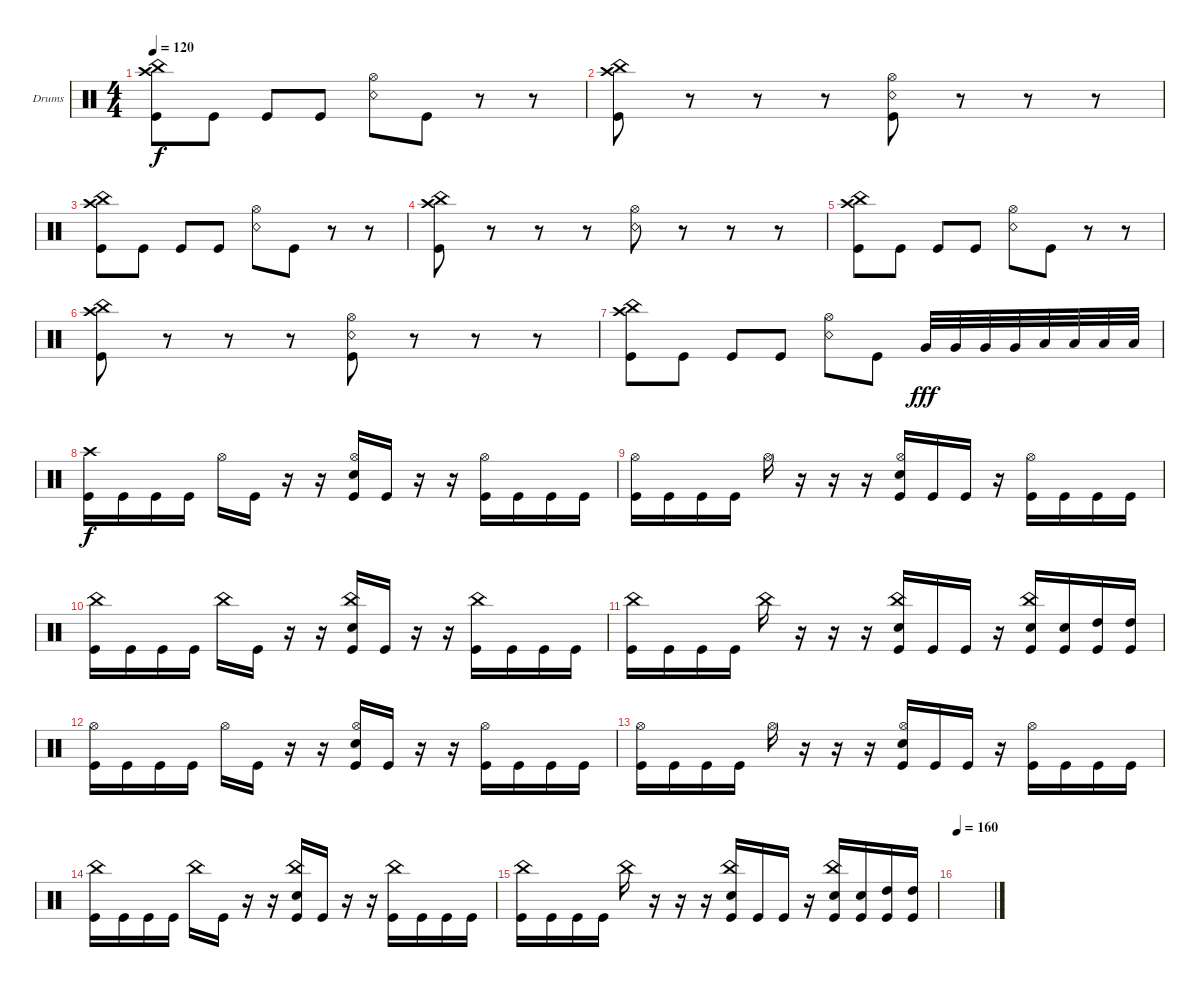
\defaultSystemsLayout 4
\bracketExtendMode groupsimilarinstruments
\firstSystemTrackNameOrientation horizontal
\otherSystemsTrackNameOrientation horizontal
\track ("Drumkit" "Drums") {instrument percussion}
\staff {score}
\articulation defaults
\ts (4 4)
\tempo 120
\clef neutral
\ks c
("Kick (hit)" "China (hit)" "Crash high (hit)").8{dy f} "Kick (hit)".8 "Kick (hit)".8 "Kick (hit)".8 ("Snare (rim shot)" "Hi-Hat (open)").8 "Kick (hit)".8 r.8 r.8 |
("Kick (hit)" "China (hit)" "Crash high (hit)").8 r.8 r.8 r.8 ("Kick (hit)" "Snare (rim shot)" "Hi-Hat (open)").8 r.8 r.8 r.8 |
("Kick (hit)" "China (hit)" "Crash high (hit)").8 "Kick (hit)".8 "Kick (hit)".8 "Kick (hit)".8 ("Snare (rim shot)" "Hi-Hat (open)").8 "Kick (hit)".8 r.8 r.8 |
("Kick (hit)" "China (hit)" "Crash high (hit)").8 r.8 r.8 r.8 ("Snare (rim shot)" "Hi-Hat (open)").8 r.8 r.8 r.8 |
("Kick (hit)" "China (hit)" "Crash high (hit)").8 "Kick (hit)".8 "Kick (hit)".8 "Kick (hit)".8 ("Snare (rim shot)" "Hi-Hat (open)").8 "Kick (hit)".8 r.8 r.8 |
("Kick (hit)" "China (hit)" "Crash high (hit)").8 r.8 r.8 r.8 ("Kick (hit)" "Snare (rim shot)" "Hi-Hat (open)").8 r.8 r.8 r.8 |
("Kick (hit)" "China (hit)" "Crash high (hit)").8 "Kick (hit)".8 "Kick (hit)".8 "Kick (hit)".8 ("Snare (rim shot)" "Hi-Hat (open)").8 "Kick (hit)".8 "Very Low Tom (hit)".32{dy fff} "Very Low Tom (hit)".32 "Very Low Tom (hit)".32 "Very Low Tom (hit)".32 "Low Tom (hit)".32 "Low Tom (hit)".32 "Low Tom (hit)".32 "Low Tom (hit)".32 |
("Kick (hit)" "Crash high (hit)").16{dy f} "Kick (hit)".16 "Kick (hit)".16 "Kick (hit)".16 "Hi-Hat (open)".16 "Kick (hit)".16 r.16 r.16 ("Kick (hit)" "Hi-Hat (open)" "Snare (hit) 2").16 "Kick (hit)".16 r.16 r.16 ("Kick (hit)" "Hi-Hat (open)").16 "Kick (hit)".16 "Kick (hit)".16 "Kick (hit)".16 |
("Kick (hit)" "Hi-Hat (open)").16 "Kick (hit)".16 "Kick (hit)".16 "Kick (hit)".16 "Hi-Hat (open)".16 r.16 r.16 r.16 ("Snare (hit) 2" "Kick (hit)" "Hi-Hat (open)").16 "Kick (hit)".16 "Kick (hit)".16 r.16 ("Kick (hit)" "Hi-Hat (open)").16 "Kick (hit)".16 "Kick (hit)".16 "Kick (hit)".16 |
("China (hit)" "Kick (hit)").16 "Kick (hit)".16 "Kick (hit)".16 "Kick (hit)".16 "China (hit)".16 "Kick (hit)".16 r.16 r.16 ("China (hit)" "Snare (hit) 2" "Kick (hit)").16 "Kick (hit)".16 r.16 r.16 ("China (hit)" "Kick (hit)").16 "Kick (hit)".16 "Kick (hit)".16 "Kick (hit)".16 |
("China (hit)" "Kick (hit)").16 "Kick (hit)".16 "Kick (hit)".16 "Kick (hit)".16 "China (hit)".16 r.16 r.16 r.16 ("China (hit)" "Snare (hit) 2" "Kick (hit)").16 "Kick (hit)".16 "Kick (hit)".16 r.16 ("China (hit)" "Kick (hit)" "Snare (hit) 2").16 ("Kick (hit)" "Snare (hit) 2").16 ("Kick (hit)" "High Tom (hit)").16 ("Kick (hit)" "High Tom (hit)").16 |
("Kick (hit)" "Hi-Hat (open)").16 "Kick (hit)".16 "Kick (hit)".16 "Kick (hit)".16 "Hi-Hat (open)".16 "Kick (hit)".16 r.16 r.16 ("Kick (hit)" "Hi-Hat (open)" "Snare (hit) 2").16 "Kick (hit)".16 r.16 r.16 ("Kick (hit)" "Hi-Hat (open)").16 "Kick (hit)".16 "Kick (hit)".16 "Kick (hit)".16 |
("Kick (hit)" "Hi-Hat (open)").16 "Kick (hit)".16 "Kick (hit)".16 "Kick (hit)".16 "Hi-Hat (open)".16 r.16 r.16 r.16 ("Snare (hit) 2" "Kick (hit)" "Hi-Hat (open)").16 "Kick (hit)".16 "Kick (hit)".16 r.16 ("Kick (hit)" "Hi-Hat (open)").16 "Kick (hit)".16 "Kick (hit)".16 "Kick (hit)".16 |
("China (hit)" "Kick (hit)").16 "Kick (hit)".16 "Kick (hit)".16 "Kick (hit)".16 "China (hit)".16 "Kick (hit)".16 r.16 r.16 ("China (hit)" "Snare (hit) 2" "Kick (hit)").16 "Kick (hit)".16 r.16 r.16 ("China (hit)" "Kick (hit)").16 "Kick (hit)".16 "Kick (hit)".16 "Kick (hit)".16 |
("China (hit)" "Kick (hit)").16 "Kick (hit)".16 "Kick (hit)".16 "Kick (hit)".16 "China (hit)".16 r.16 r.16 r.16 ("China (hit)" "Snare (hit) 2" "Kick (hit)").16 "Kick (hit)".16 "Kick (hit)".16 r.16 ("China (hit)" "Kick (hit)" "Snare (hit) 2").16 ("Kick (hit)" "Snare (hit) 2").16 ("Kick (hit)" "High Tom (hit)").16 ("Kick (hit)" "High Tom (hit)").16 |
\tempo 160
